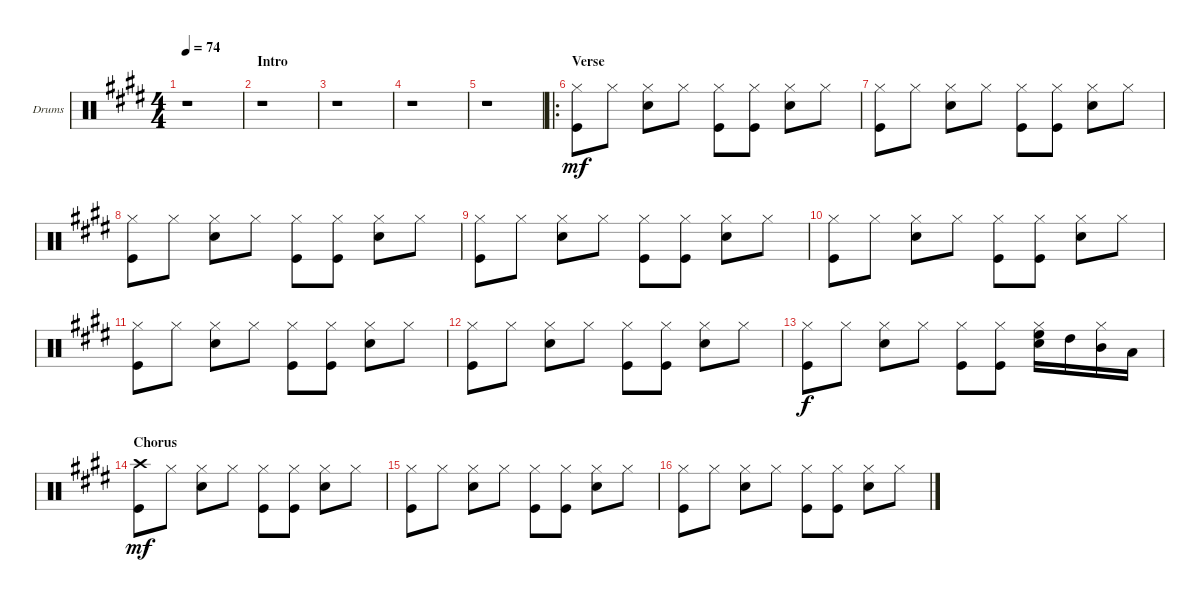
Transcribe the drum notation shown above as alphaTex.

\bracketExtendMode groupsimilarinstruments
\useSystemSignSeparator
\multiTrackTrackNamePolicy allsystems
\firstSystemTrackNameOrientation horizontal
\otherSystemsTrackNameOrientation horizontal
\track ("Drums" "Drums") {instrument percussion}
\staff {score}
\articulation defaults
\ts (4 4)
\tempo 74
\clef neutral
\ks c#minor
r.1{dy mf} |
\section ("" "Intro")
r.1 |
r.1 |
r.1 |
r.1 |
\ro
\section ("" "Verse")
("Kick (hit)" "Hi-Hat (closed)").8 "Hi-Hat (closed)".8 ("Snare (hit) 2" "Hi-Hat (closed)").8 "Hi-Hat (closed)".8 ("Kick (hit)" "Hi-Hat (closed)").8 ("Kick (hit)" "Hi-Hat (closed)").8 ("Snare (hit) 2" "Hi-Hat (closed)").8 "Hi-Hat (closed)".8 |
("Kick (hit)" "Hi-Hat (closed)").8 "Hi-Hat (closed)".8 ("Snare (hit) 2" "Hi-Hat (closed)").8 "Hi-Hat (closed)".8 ("Kick (hit)" "Hi-Hat (closed)").8 ("Kick (hit)" "Hi-Hat (closed)").8 ("Snare (hit) 2" "Hi-Hat (closed)").8 "Hi-Hat (closed)".8 |
("Kick (hit)" "Hi-Hat (closed)").8 "Hi-Hat (closed)".8 ("Snare (hit) 2" "Hi-Hat (closed)").8 "Hi-Hat (closed)".8 ("Kick (hit)" "Hi-Hat (closed)").8 ("Kick (hit)" "Hi-Hat (closed)").8 ("Snare (hit) 2" "Hi-Hat (closed)").8 "Hi-Hat (closed)".8 |
("Kick (hit)" "Hi-Hat (closed)").8 "Hi-Hat (closed)".8 ("Snare (hit) 2" "Hi-Hat (closed)").8 "Hi-Hat (closed)".8 ("Kick (hit)" "Hi-Hat (closed)").8 ("Kick (hit)" "Hi-Hat (closed)").8 ("Snare (hit) 2" "Hi-Hat (closed)").8 "Hi-Hat (closed)".8 |
("Kick (hit)" "Hi-Hat (closed)").8 "Hi-Hat (closed)".8 ("Snare (hit) 2" "Hi-Hat (closed)").8 "Hi-Hat (closed)".8 ("Kick (hit)" "Hi-Hat (closed)").8 ("Kick (hit)" "Hi-Hat (closed)").8 ("Snare (hit) 2" "Hi-Hat (closed)").8 "Hi-Hat (closed)".8 |
("Kick (hit)" "Hi-Hat (closed)").8 "Hi-Hat (closed)".8 ("Snare (hit) 2" "Hi-Hat (closed)").8 "Hi-Hat (closed)".8 ("Kick (hit)" "Hi-Hat (closed)").8 ("Kick (hit)" "Hi-Hat (closed)").8 ("Snare (hit) 2" "Hi-Hat (closed)").8 "Hi-Hat (closed)".8 |
("Kick (hit)" "Hi-Hat (closed)").8 "Hi-Hat (closed)".8 ("Snare (hit) 2" "Hi-Hat (closed)").8 "Hi-Hat (closed)".8 ("Kick (hit)" "Hi-Hat (closed)").8 ("Kick (hit)" "Hi-Hat (closed)").8 ("Snare (hit) 2" "Hi-Hat (closed)").8 "Hi-Hat (closed)".8 |
("Kick (hit)" "Hi-Hat (closed)").8{dy f} "Hi-Hat (closed)".8 ("Snare (hit) 2" "Hi-Hat (closed)").8 "Hi-Hat (closed)".8 ("Kick (hit)" "Hi-Hat (closed)").8 ("Kick (hit)" "Hi-Hat (closed)").8 ("Snare (hit) 2" "Hi-Hat (closed)" "High Floor Tom (hit)").16 "High Tom (hit)".16 ("Hi-Hat (closed)" "Mid Tom (hit)").16 "Low Tom (hit)".16 |
\section ("" "Chorus")
("Kick (hit)" "Crash high (hit)").8{dy mf} "Hi-Hat (closed)".8 ("Snare (hit) 2" "Hi-Hat (closed)").8 "Hi-Hat (closed)".8 ("Kick (hit)" "Hi-Hat (closed)").8 ("Kick (hit)" "Hi-Hat (closed)").8 ("Snare (hit) 2" "Hi-Hat (closed)").8 "Hi-Hat (closed)".8 |
("Kick (hit)" "Hi-Hat (closed)").8 "Hi-Hat (closed)".8 ("Snare (hit) 2" "Hi-Hat (closed)").8 "Hi-Hat (closed)".8 ("Kick (hit)" "Hi-Hat (closed)").8 ("Kick (hit)" "Hi-Hat (closed)").8 ("Snare (hit) 2" "Hi-Hat (closed)").8 "Hi-Hat (closed)".8 |
("Kick (hit)" "Hi-Hat (closed)").8 "Hi-Hat (closed)".8 ("Snare (hit) 2" "Hi-Hat (closed)").8 "Hi-Hat (closed)".8 ("Kick (hit)" "Hi-Hat (closed)").8 ("Kick (hit)" "Hi-Hat (closed)").8 ("Snare (hit) 2" "Hi-Hat (closed)").8 "Hi-Hat (closed)".8
